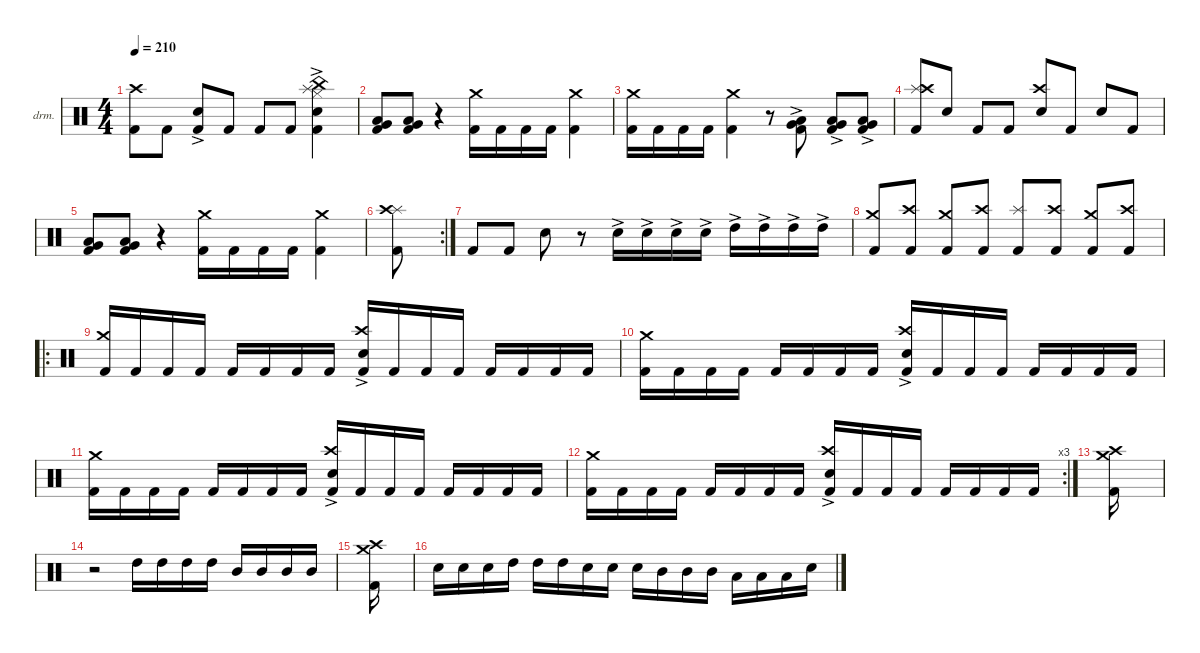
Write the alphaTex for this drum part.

\defaultSystemsLayout 4
\hideDynamics
\bracketExtendMode nobrackets
\firstSystemTrackNameOrientation horizontal
\otherSystemsTrackNameOrientation horizontal
\track ("Drumkit" "drm.") {instrument percussion}
\staff {score}
\articulation defaults
\ts (4 4)
\tempo 210
\clef neutral
\ks c
("Kick (hit) 2" "Crash high (hit)").8{dy f beam Down} "Kick (hit) 2".8{beam Down} ("Snare (hit) 2"{ac} "Kick (hit) 2").8{beam Up} "Kick (hit) 2".8{beam Up} "Kick (hit) 2".8{beam Up} "Kick (hit) 2".8{beam Up} ("Hi-Hat (closed)" "Splash (hit)" "China (hit)" "Kick (hit) 2" "Snare (hit) 2"{ac}).4{beam Down} |
("Kick (hit) 2" "Very Low Tom (hit)" "Low Tom (hit)").8{beam Up} ("Kick (hit) 2" "Very Low Tom (hit)" "Low Tom (hit)").8{beam Up} r.4{beam Up} ("Kick (hit) 2" "Crash medium (hit)").16{beam Down} "Kick (hit) 2".16{beam Down} "Kick (hit) 2".16{beam Down} "Kick (hit) 2".16{beam Down} ("Kick (hit) 2" "Crash medium (hit)").4{beam Down} |
("Kick (hit) 2" "Crash medium (hit)").16{beam Down} "Kick (hit) 2".16{beam Down} "Kick (hit) 2".16{beam Down} "Kick (hit) 2".16{beam Down} ("Kick (hit) 2" "Crash medium (hit)").4{beam Down} r.8{beam Down} ("Kick (hit) 2"{ac} "Very Low Tom (hit)"{ac} "Low Tom (hit)"{ac}).8{beam Up} ("Kick (hit) 2"{ac} "Very Low Tom (hit)"{ac} "Low Tom (hit)"{ac}).8{beam Up} ("Kick (hit) 2"{ac} "Very Low Tom (hit)"{ac} "Low Tom (hit)"{ac}).8{beam Up} |
("Kick (hit) 2" "Splash (hit)" "Crash high (hit)").8{beam Up} "Snare (hit) 2".8{beam Up} "Kick (hit) 2".8{beam Up} "Kick (hit) 2".8{beam Up} ("Snare (hit) 2" "Crash high (hit)").8{beam Up} "Kick (hit) 2".8{beam Up} "Snare (hit) 2".8{beam Up} "Kick (hit) 2".8{beam Up} |
("Kick (hit) 2" "Very Low Tom (hit)" "Low Tom (hit)").8 ("Kick (hit) 2" "Very Low Tom (hit)" "Low Tom (hit)").8 r.4 ("Kick (hit) 2" "Crash medium (hit)").16 "Kick (hit) 2".16 "Kick (hit) 2".16 "Kick (hit) 2".16 ("Kick (hit) 2" "Crash medium (hit)").4 |
\rc 2
("Kick (hit) 2" "Splash (hit)" "Crash high (hit)").8 |
"Kick (hit) 2".8{beam Up} "Kick (hit) 2".8{beam Up} "Snare (hit) 2".8{beam Down} r.8{beam Down} "Snare (hit) 2"{ac}.16{beam Down} "Snare (hit) 2"{ac}.16{beam Down} "Snare (hit) 2"{ac}.16{beam Down} "Snare (hit) 2"{ac}.16{beam Down} "High Tom (hit)"{ac}.16{beam Down} "High Tom (hit)"{ac}.16{beam Down} "High Tom (hit)"{ac}.16{beam Down} "High Tom (hit)"{ac}.16{beam Down} |
("Kick (hit) 2" "Crash medium (hit)").8{beam Up} ("Kick (hit) 2" "Crash high (hit)").8{beam Up} ("Kick (hit) 2" "Crash medium (hit)").8{beam Up} ("Kick (hit) 2" "Crash high (hit)").8{beam Up} ("Kick (hit) 2" "Splash (hit)").8{beam Up} ("Kick (hit) 2" "Crash high (hit)").8{beam Up} ("Kick (hit) 2" "Crash medium (hit)").8{beam Up} ("Kick (hit) 2" "Crash high (hit)").8{beam Up} |
\ro
("Kick (hit) 2" "Crash medium (hit)").16{beam Up} "Kick (hit) 2".16{beam Up} "Kick (hit) 2".16{beam Up} "Kick (hit) 2".16{beam Up} "Kick (hit) 2".16{beam Up} "Kick (hit) 2".16{beam Up} "Kick (hit) 2".16{beam Up} "Kick (hit) 2".16{beam Up} ("Kick (hit) 2" "Crash high (hit)" "Snare (hit) 2"{ac}).16{beam Up} "Kick (hit) 2".16{beam Up} "Kick (hit) 2".16{beam Up} "Kick (hit) 2".16{beam Up} "Kick (hit) 2".16{beam Up} "Kick (hit) 2".16{beam Up} "Kick (hit) 2".16{beam Up} "Kick (hit) 2".16{beam Up} |
("Kick (hit) 2" "Crash medium (hit)").16 "Kick (hit) 2".16 "Kick (hit) 2".16 "Kick (hit) 2".16 "Kick (hit) 2".16 "Kick (hit) 2".16 "Kick (hit) 2".16 "Kick (hit) 2".16 ("Kick (hit) 2" "Crash high (hit)" "Snare (hit) 2"{ac}).16 "Kick (hit) 2".16 "Kick (hit) 2".16 "Kick (hit) 2".16 "Kick (hit) 2".16 "Kick (hit) 2".16 "Kick (hit) 2".16 "Kick (hit) 2".16 |
("Kick (hit) 2" "Crash medium (hit)").16 "Kick (hit) 2".16 "Kick (hit) 2".16 "Kick (hit) 2".16 "Kick (hit) 2".16 "Kick (hit) 2".16 "Kick (hit) 2".16 "Kick (hit) 2".16 ("Kick (hit) 2" "Crash high (hit)" "Snare (hit) 2"{ac}).16 "Kick (hit) 2".16 "Kick (hit) 2".16 "Kick (hit) 2".16 "Kick (hit) 2".16 "Kick (hit) 2".16 "Kick (hit) 2".16 "Kick (hit) 2".16 |
\rc 3
("Kick (hit) 2" "Crash medium (hit)").16 "Kick (hit) 2".16 "Kick (hit) 2".16 "Kick (hit) 2".16 "Kick (hit) 2".16 "Kick (hit) 2".16 "Kick (hit) 2".16 "Kick (hit) 2".16 ("Kick (hit) 2" "Crash high (hit)" "Snare (hit) 2"{ac}).16 "Kick (hit) 2".16 "Kick (hit) 2".16 "Kick (hit) 2".16 "Kick (hit) 2".16 "Kick (hit) 2".16 "Kick (hit) 2".16 "Kick (hit) 2".16 |
("Crash medium (hit)" "Crash high (hit)" "Kick (hit) 2").16{beam Down} |
r.2{beam Down} "High Tom (hit)".16{beam Down} "High Tom (hit)".16{beam Down} "High Tom (hit)".16{beam Down} "High Tom (hit)".16{beam Down} "Mid Tom (hit)".16{beam Up} "Mid Tom (hit)".16{beam Up} "Mid Tom (hit)".16{beam Up} "Mid Tom (hit)".16{beam Up} |
("Crash medium (hit)" "Crash high (hit)" "Kick (hit) 2").16{beam Down} |
"Snare (hit) 2".16{beam Down} "Snare (hit) 2".16{beam Down} "Snare (hit) 2".16{beam Down} "High Tom (hit)".16{beam Down} "High Tom (hit)".16{beam Down} "High Tom (hit)".16{beam Down} "Snare (hit) 2".16{beam Down} "Snare (hit) 2".16{beam Down} "Snare (hit) 2".16{beam Down} "Mid Tom (hit)".16{beam Down} "Mid Tom (hit)".16{beam Down} "Mid Tom (hit)".16{beam Down} "Low Tom (hit)".16{beam Down} "Low Tom (hit)".16{beam Down} "Low Tom (hit)".16{beam Down} "Snare (hit) 2".16{beam Down}
